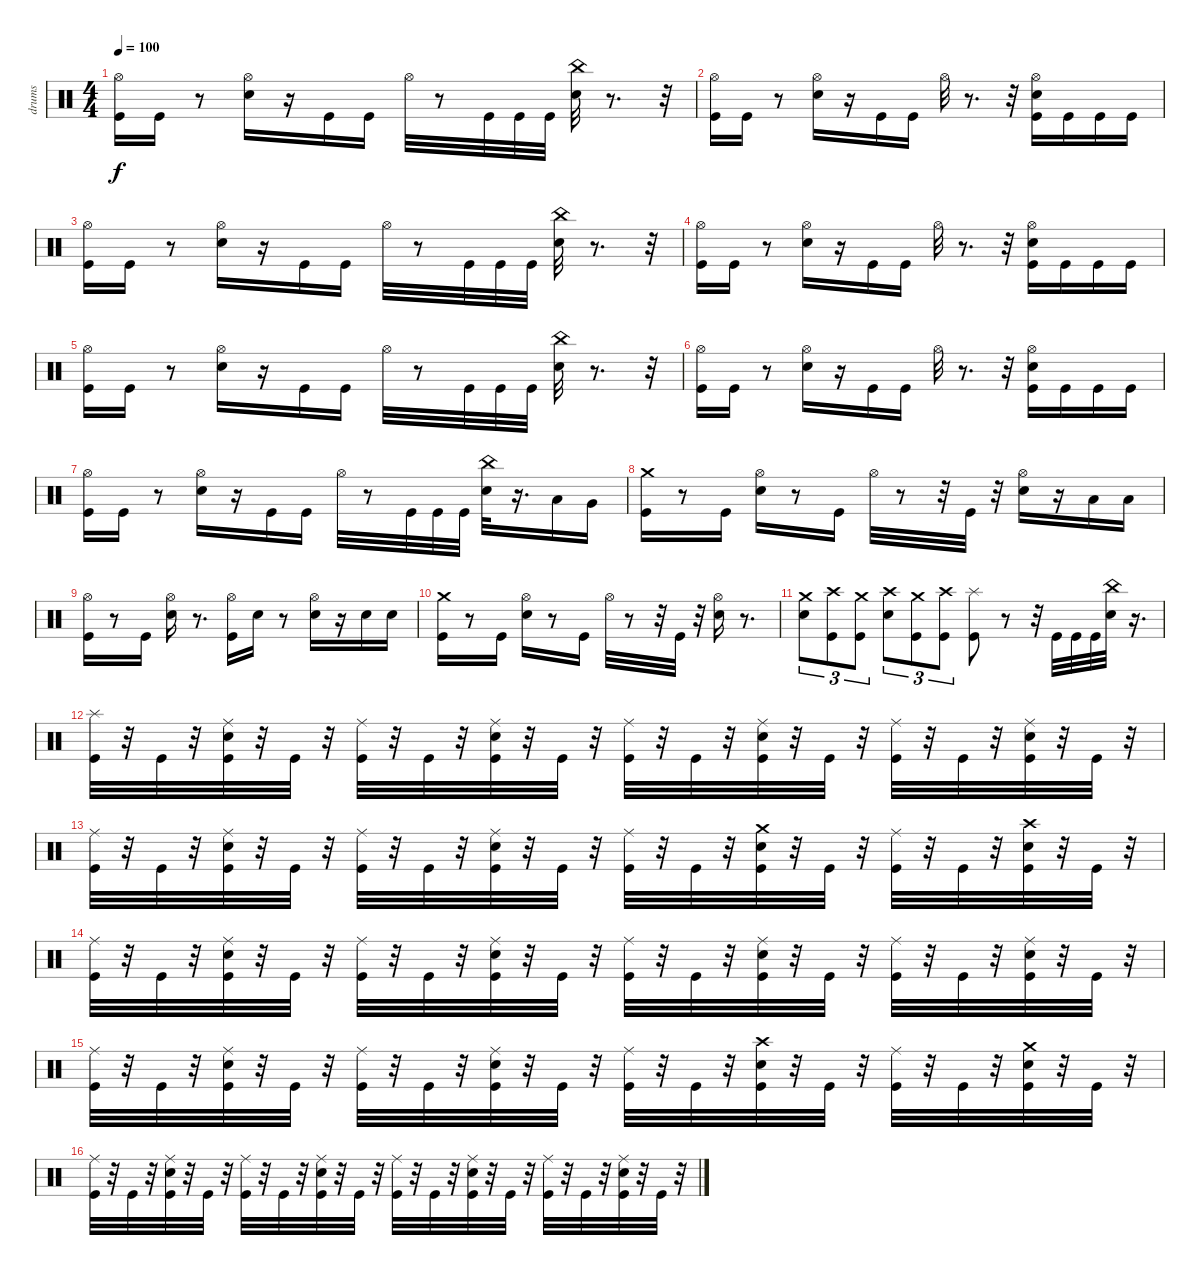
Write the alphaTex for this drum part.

\track ("drums" "drums") {instrument percussion}
\staff {score}
\articulation defaults
\ts (4 4)
\tempo 100
\clef neutral
\ks c
("Hi-Hat (open)" "Kick (hit)").16{dy f} "Kick (hit)".16 r.8 ("Hi-Hat (open)" "Electric Snare (hit)").16 r.16 "Kick (hit)".16 "Kick (hit)".16 "Hi-Hat (open)".32 r.8 "Kick (hit)".32 "Kick (hit)".32 "Kick (hit)".32 ("China (hit)" "Electric Snare (hit)").32 r.8{d} r.32 |
("Hi-Hat (open)" "Kick (hit)").16 "Kick (hit)".16 r.8 ("Hi-Hat (open)" "Electric Snare (hit)").16 r.16 "Kick (hit)".16 "Kick (hit)".16 "Hi-Hat (open)".32 r.8{d} r.32 ("Kick (hit)" "Hi-Hat (open)" "Electric Snare (hit)").16 "Kick (hit)".16 "Kick (hit)".16 "Kick (hit)".16 |
("Kick (hit)" "Hi-Hat (open)").16 "Kick (hit)".16 r.8 ("Hi-Hat (open)" "Electric Snare (hit)").16 r.16 "Kick (hit)".16 "Kick (hit)".16 "Hi-Hat (open)".32 r.8 "Kick (hit)".32 "Kick (hit)".32 "Kick (hit)".32 ("Electric Snare (hit)" "China (hit)").32 r.8{d} r.32 |
("Hi-Hat (open)" "Kick (hit)").16 "Kick (hit)".16 r.8 ("Electric Snare (hit)" "Hi-Hat (open)").16 r.16 "Kick (hit)".16 "Kick (hit)".16 "Hi-Hat (open)".32 r.8{d} r.32 ("Kick (hit)" "Electric Snare (hit)" "Hi-Hat (open)").16 "Kick (hit)".16 "Kick (hit)".16 "Kick (hit)".16 |
("Kick (hit)" "Hi-Hat (open)").16 "Kick (hit)".16 r.8 ("Hi-Hat (open)" "Electric Snare (hit)").16 r.16 "Kick (hit)".16 "Kick (hit)".16 "Hi-Hat (open)".32 r.8 "Kick (hit)".32 "Kick (hit)".32 "Kick (hit)".32 ("Electric Snare (hit)" "China (hit)").32 r.8{d} r.32 |
("Kick (hit)" "Hi-Hat (open)").16 "Kick (hit)".16 r.8 ("Hi-Hat (open)" "Electric Snare (hit)").16 r.16 "Kick (hit)".16 "Kick (hit)".16 "Hi-Hat (open)".32 r.8{d} r.32 ("Kick (hit)" "Electric Snare (hit)" "Hi-Hat (open)").16 "Kick (hit)".16 "Kick (hit)".16 "Kick (hit)".16 |
("Kick (hit)" "Hi-Hat (open)").16 "Kick (hit)".16 r.8 ("Electric Snare (hit)" "Hi-Hat (open)").16 r.16 "Kick (hit)".16 "Kick (hit)".16 "Hi-Hat (open)".32 r.8 "Kick (hit)".32 "Kick (hit)".32 "Kick (hit)".32 ("Electric Snare (hit)" "China (hit)").32 r.16{d} "Low Tom (hit)".16 "Very Low Tom (hit)".16 |
("Kick (hit)" "Crash medium (hit)").16 r.8 "Kick (hit)".16 ("Hi-Hat (open)" "Electric Snare (hit)").16 r.8 "Kick (hit)".16 "Hi-Hat (open)".32 r.8 r.32 "Kick (hit)".32 r.32 ("Hi-Hat (open)" "Electric Snare (hit)").16 r.16 "Low Tom (hit)".16 "Low Tom (hit)".16 |
("Hi-Hat (open)" "Kick (hit)").16 r.8 "Kick (hit)".16 ("Hi-Hat (open)" "Electric Snare (hit)").16 r.8{d} ("Hi-Hat (open)" "Kick (hit)").16 "Electric Snare (hit)".16 r.8 ("Hi-Hat (open)" "Electric Snare (hit)").16 r.16 "Electric Snare (hit)".16 "Electric Snare (hit)".16 |
("Kick (hit)" "Crash medium (hit)").16 r.8 "Kick (hit)".16 ("Hi-Hat (open)" "Electric Snare (hit)").16 r.8 "Kick (hit)".16 "Hi-Hat (open)".32 r.8 r.32 "Kick (hit)".32 r.32 ("Electric Snare (hit)" "Hi-Hat (open)").16 r.8{d} |
("Electric Snare (hit)" "Crash medium (hit)").8{tu (3 2)} ("Crash high (hit)" "Kick (hit)").8{tu (3 2)} ("Kick (hit)" "Crash medium (hit)").8{tu (3 2)} ("Crash high (hit)" "Electric Snare (hit)").8{tu (3 2)} ("Kick (hit)" "Crash medium (hit)").8{tu (3 2)} ("Kick (hit)" "Crash high (hit)").8{tu (3 2)} ("Splash (hit)" "Kick (hit)").8 r.8 r.32 "Kick (hit)".32 "Kick (hit)".32 "Kick (hit)".32 ("China (hit)" "Electric Snare (hit)").32 r.16{d} |
("Splash (hit)" "Kick (hit)").32 r.32 "Kick (hit)".32 r.32 ("Electric Snare (hit)" "Kick (hit)" "Ride (middle)").32 r.32 "Kick (hit)".32 r.32 ("Ride (middle)" "Kick (hit)").32 r.32 "Kick (hit)".32 r.32 ("Kick (hit)" "Ride (middle)" "Electric Snare (hit)").32 r.32 "Kick (hit)".32 r.32 ("Kick (hit)" "Ride (middle)").32 r.32 "Kick (hit)".32 r.32 ("Electric Snare (hit)" "Ride (middle)" "Kick (hit)").32 r.32 "Kick (hit)".32 r.32 ("Ride (middle)" "Kick (hit)").32 r.32 "Kick (hit)".32 r.32 ("Ride (middle)" "Kick (hit)" "Electric Snare (hit)").32 r.32 "Kick (hit)".32 r.32 |
("Kick (hit)" "Ride (middle)").32 r.32 "Kick (hit)".32 r.32 ("Kick (hit)" "Ride (middle)" "Electric Snare (hit)").32 r.32 "Kick (hit)".32 r.32 ("Ride (middle)" "Kick (hit)").32 r.32 "Kick (hit)".32 r.32 ("Electric Snare (hit)" "Ride (middle)" "Kick (hit)").32 r.32 "Kick (hit)".32 r.32 ("Ride (middle)" "Kick (hit)").32 r.32 "Kick (hit)".32 r.32 ("Crash medium (hit)" "Kick (hit)" "Electric Snare (hit)").32 r.32 "Kick (hit)".32 r.32 ("Ride (middle)" "Kick (hit)").32 r.32 "Kick (hit)".32 r.32 ("Kick (hit)" "Crash high (hit)" "Electric Snare (hit)").32 r.32 "Kick (hit)".32 r.32 |
("Ride (middle)" "Kick (hit)").32 r.32 "Kick (hit)".32 r.32 ("Ride (middle)" "Kick (hit)" "Electric Snare (hit)").32 r.32 "Kick (hit)".32 r.32 ("Kick (hit)" "Ride (middle)").32 r.32 "Kick (hit)".32 r.32 ("Electric Snare (hit)" "Ride (middle)" "Kick (hit)").32 r.32 "Kick (hit)".32 r.32 ("Kick (hit)" "Ride (middle)").32 r.32 "Kick (hit)".32 r.32 ("Ride (middle)" "Kick (hit)" "Electric Snare (hit)").32 r.32 "Kick (hit)".32 r.32 ("Kick (hit)" "Ride (middle)").32 r.32 "Kick (hit)".32 r.32 ("Ride (middle)" "Electric Snare (hit)" "Kick (hit)").32 r.32 "Kick (hit)".32 r.32 |
("Kick (hit)" "Ride (middle)").32 r.32 "Kick (hit)".32 r.32 ("Electric Snare (hit)" "Ride (middle)" "Kick (hit)").32 r.32 "Kick (hit)".32 r.32 ("Kick (hit)" "Ride (middle)").32 r.32 "Kick (hit)".32 r.32 ("Kick (hit)" "Ride (middle)" "Electric Snare (hit)").32 r.32 "Kick (hit)".32 r.32 ("Kick (hit)" "Ride (middle)").32 r.32 "Kick (hit)".32 r.32 ("Crash high (hit)" "Kick (hit)" "Electric Snare (hit)").32 r.32 "Kick (hit)".32 r.32 ("Kick (hit)" "Ride (middle)").32 r.32 "Kick (hit)".32 r.32 ("Crash medium (hit)" "Electric Snare (hit)" "Kick (hit)").32 r.32 "Kick (hit)".32 r.32 |
("Ride (middle)" "Kick (hit)").32 r.32 "Kick (hit)".32 r.32 ("Kick (hit)" "Ride (middle)" "Electric Snare (hit)").32 r.32 "Kick (hit)".32 r.32 ("Ride (middle)" "Kick (hit)").32 r.32 "Kick (hit)".32 r.32 ("Electric Snare (hit)" "Ride (middle)" "Kick (hit)").32 r.32 "Kick (hit)".32 r.32 ("Kick (hit)" "Ride (middle)").32 r.32 "Kick (hit)".32 r.32 ("Kick (hit)" "Ride (middle)" "Electric Snare (hit)").32 r.32 "Kick (hit)".32 r.32 ("Kick (hit)" "Ride (middle)").32 r.32 "Kick (hit)".32 r.32 ("Electric Snare (hit)" "Ride (middle)" "Kick (hit)").32 r.32 "Kick (hit)".32 r.32
